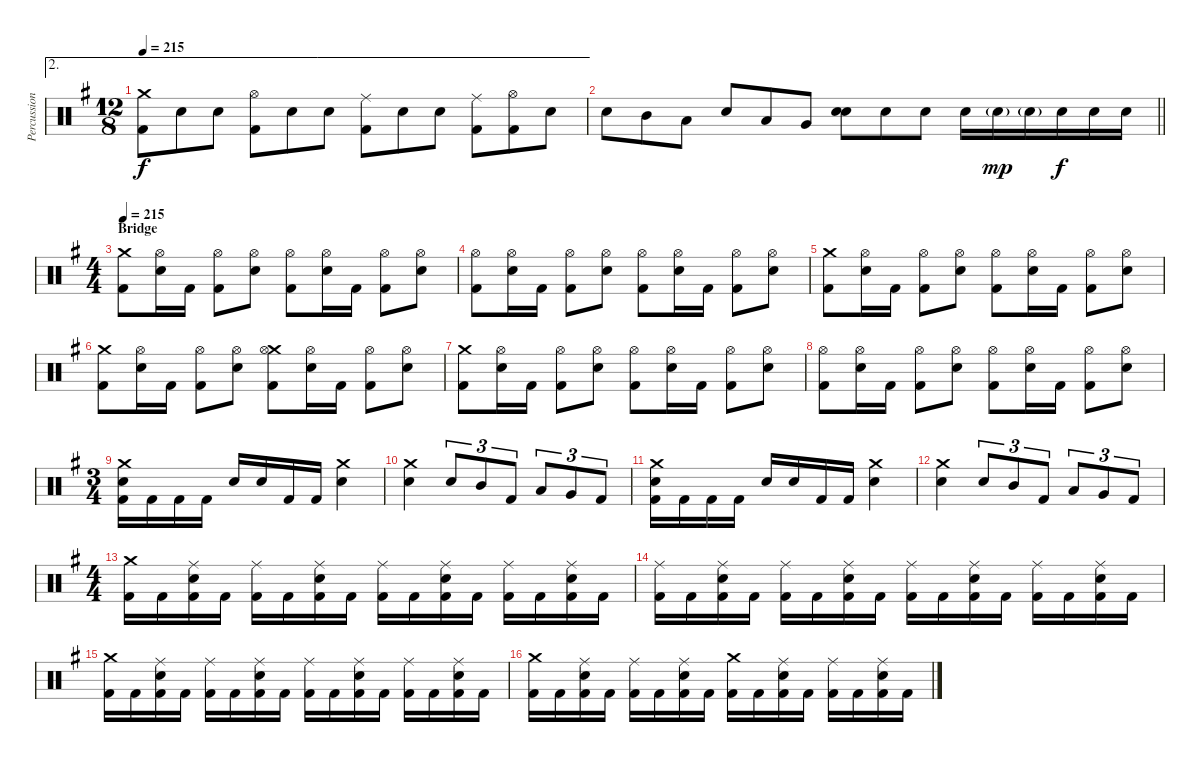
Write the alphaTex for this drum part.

\track ("Percussion" "Percussion") {instrument percussion}
\staff {score}
\articulation defaults
\ae 2
\ts (12 8)
\tempo 215
\clef neutral
\ks eminor
("Crash medium (hit)" "Kick (hit) 2").8{dy f} "Electric Snare (hit)".8 "Electric Snare (hit)".8 ("Hi-Hat (open)" "Kick (hit) 2").8 "Electric Snare (hit)".8 "Electric Snare (hit)".8 ("Ride (middle)" "Kick (hit) 2").8 "Electric Snare (hit)".8 "Electric Snare (hit)".8 ("Ride (middle)" "Kick (hit) 2").8 ("Hi-Hat (open)" "Kick (hit) 2").8 "Electric Snare (hit)".8 |
\barLineRight lightlight "Electric Snare (hit)".8 "Mid Tom (hit)".8 "Low Tom (hit)".8 "Electric Snare (hit)".8 "Low Tom (hit)".8 "Very Low Tom (hit)".8
("Electric Snare (hit)" "Electric Snare (hit)").8{bd 240} "Electric Snare (hit)".8 "Electric Snare (hit)".8 "Electric Snare (hit)".16 "Electric Snare (hit)"{g}.16{dy mp} "Electric Snare (hit)"{g}.16 "Electric Snare (hit)".16{dy f} "Electric Snare (hit)".16 "Electric Snare (hit)".16 |
\ts (4 4)
\section ("" "Bridge")
\tempo 215
("Crash medium (hit)" "Kick (hit) 2").8 ("Hi-Hat (open)" "Electric Snare (hit)").16 "Kick (hit) 2".16 ("Hi-Hat (open)" "Kick (hit) 2").8 ("Hi-Hat (open)" "Electric Snare (hit)").8 ("Hi-Hat (open)" "Kick (hit) 2").8 ("Hi-Hat (open)" "Electric Snare (hit)").16 "Kick (hit) 2".16 ("Hi-Hat (open)" "Kick (hit) 2").8 ("Hi-Hat (open)" "Electric Snare (hit)").8 |
("Hi-Hat (open)" "Kick (hit) 2").8 ("Hi-Hat (open)" "Electric Snare (hit)").16 "Kick (hit) 2".16 ("Hi-Hat (open)" "Kick (hit) 2").8 ("Hi-Hat (open)" "Electric Snare (hit)").8 ("Hi-Hat (open)" "Kick (hit) 2").8 ("Hi-Hat (open)" "Electric Snare (hit)").16 "Kick (hit) 2".16 ("Hi-Hat (open)" "Kick (hit) 2").8 ("Hi-Hat (open)" "Electric Snare (hit)").8 |
("Crash medium (hit)" "Kick (hit) 2").8 ("Hi-Hat (open)" "Electric Snare (hit)").16 "Kick (hit) 2".16 ("Hi-Hat (open)" "Kick (hit) 2").8 ("Hi-Hat (open)" "Electric Snare (hit)").8 ("Hi-Hat (open)" "Kick (hit) 2").8 ("Hi-Hat (open)" "Electric Snare (hit)").16 "Kick (hit) 2".16 ("Hi-Hat (open)" "Kick (hit) 2").8 ("Hi-Hat (open)" "Electric Snare (hit)").8 |
("Crash medium (hit)" "Kick (hit) 2").8 ("Hi-Hat (open)" "Electric Snare (hit)").16 "Kick (hit) 2".16 ("Hi-Hat (open)" "Kick (hit) 2").8 ("Hi-Hat (open)" "Electric Snare (hit)").8 ("Crash medium (hit)" "Hi-Hat (open)" "Kick (hit) 2").8 ("Hi-Hat (open)" "Electric Snare (hit)").16 "Kick (hit) 2".16 ("Hi-Hat (open)" "Kick (hit) 2").8 ("Hi-Hat (open)" "Electric Snare (hit)").8 |
("Crash medium (hit)" "Kick (hit) 2").8 ("Hi-Hat (open)" "Electric Snare (hit)").16 "Kick (hit) 2".16 ("Hi-Hat (open)" "Kick (hit) 2").8 ("Hi-Hat (open)" "Electric Snare (hit)").8 ("Hi-Hat (open)" "Kick (hit) 2").8 ("Hi-Hat (open)" "Electric Snare (hit)").16 "Kick (hit) 2".16 ("Hi-Hat (open)" "Kick (hit) 2").8 ("Hi-Hat (open)" "Electric Snare (hit)").8 |
("Hi-Hat (open)" "Kick (hit) 2").8 ("Hi-Hat (open)" "Electric Snare (hit)").16 "Kick (hit) 2".16 ("Hi-Hat (open)" "Kick (hit) 2").8 ("Hi-Hat (open)" "Electric Snare (hit)").8 ("Hi-Hat (open)" "Kick (hit) 2").8 ("Hi-Hat (open)" "Electric Snare (hit)").16 "Kick (hit) 2".16 ("Hi-Hat (open)" "Kick (hit) 2").8 ("Hi-Hat (open)" "Electric Snare (hit)").8 |
\ts (3 4)
("Crash medium (hit)" "Electric Snare (hit)" "Kick (hit) 2").16 "Kick (hit) 2".16 "Kick (hit) 2".16 "Kick (hit) 2".16 "Electric Snare (hit)".16 "Electric Snare (hit)".16 "Kick (hit) 2".16 "Kick (hit) 2".16 ("Crash medium (hit)" "Electric Snare (hit)").4 |
("Crash medium (hit)" "Electric Snare (hit)").4 "Electric Snare (hit)".8{tu (3 2)} "Mid Tom (hit)".8{tu (3 2)} "Kick (hit) 2".8{tu (3 2)} "Low Tom (hit)".8{tu (3 2)} "Very Low Tom (hit)".8{tu (3 2)} "Kick (hit) 2".8{tu (3 2)} |
("Crash medium (hit)" "Electric Snare (hit)" "Kick (hit) 2").16 "Kick (hit) 2".16 "Kick (hit) 2".16 "Kick (hit) 2".16 "Electric Snare (hit)".16 "Electric Snare (hit)".16 "Kick (hit) 2".16 "Kick (hit) 2".16 ("Crash medium (hit)" "Electric Snare (hit)").4 |
("Crash medium (hit)" "Electric Snare (hit)").4 "Electric Snare (hit)".8{tu (3 2)} "Mid Tom (hit)".8{tu (3 2)} "Kick (hit) 2".8{tu (3 2)} "Low Tom (hit)".8{tu (3 2)} "Very Low Tom (hit)".8{tu (3 2)} "Kick (hit) 2".8{tu (3 2)} |
\ts (4 4)
("Crash medium (hit)" "Kick (hit) 2").16 "Kick (hit) 2".16 ("Ride (middle)" "Electric Snare (hit)" "Kick (hit) 2").16 "Kick (hit) 2".16 ("Ride (middle)" "Kick (hit) 2").16 "Kick (hit) 2".16 ("Ride (middle)" "Electric Snare (hit)" "Kick (hit) 2").16 "Kick (hit) 2".16 ("Ride (middle)" "Kick (hit) 2").16 "Kick (hit) 2".16 ("Ride (middle)" "Electric Snare (hit)" "Kick (hit) 2").16 "Kick (hit) 2".16 ("Ride (middle)" "Kick (hit) 2").16 "Kick (hit) 2".16 ("Ride (middle)" "Electric Snare (hit)" "Kick (hit) 2").16 "Kick (hit) 2".16 |
("Ride (middle)" "Kick (hit) 2").16 "Kick (hit) 2".16 ("Ride (middle)" "Electric Snare (hit)" "Kick (hit) 2").16 "Kick (hit) 2".16 ("Ride (middle)" "Kick (hit) 2").16 "Kick (hit) 2".16 ("Ride (middle)" "Electric Snare (hit)" "Kick (hit) 2").16 "Kick (hit) 2".16 ("Ride (middle)" "Kick (hit) 2").16 "Kick (hit) 2".16 ("Ride (middle)" "Electric Snare (hit)" "Kick (hit) 2").16 "Kick (hit) 2".16 ("Ride (middle)" "Kick (hit) 2").16 "Kick (hit) 2".16 ("Ride (middle)" "Electric Snare (hit)" "Kick (hit) 2").16 "Kick (hit) 2".16 |
("Crash medium (hit)" "Kick (hit) 2").16 "Kick (hit) 2".16 ("Ride (middle)" "Electric Snare (hit)" "Kick (hit) 2").16 "Kick (hit) 2".16 ("Ride (middle)" "Kick (hit) 2").16 "Kick (hit) 2".16 ("Ride (middle)" "Electric Snare (hit)" "Kick (hit) 2").16 "Kick (hit) 2".16 ("Ride (middle)" "Kick (hit) 2").16 "Kick (hit) 2".16 ("Ride (middle)" "Electric Snare (hit)" "Kick (hit) 2").16 "Kick (hit) 2".16 ("Ride (middle)" "Kick (hit) 2").16 "Kick (hit) 2".16 ("Ride (middle)" "Electric Snare (hit)" "Kick (hit) 2").16 "Kick (hit) 2".16 |
("Crash medium (hit)" "Kick (hit) 2").16 "Kick (hit) 2".16 ("Ride (middle)" "Electric Snare (hit)" "Kick (hit) 2").16 "Kick (hit) 2".16 ("Ride (middle)" "Kick (hit) 2").16 "Kick (hit) 2".16 ("Ride (middle)" "Electric Snare (hit)" "Kick (hit) 2").16 "Kick (hit) 2".16 ("Crash medium (hit)" "Kick (hit) 2").16 "Kick (hit) 2".16 ("Ride (middle)" "Electric Snare (hit)" "Kick (hit) 2").16 "Kick (hit) 2".16 ("Ride (middle)" "Kick (hit) 2").16 "Kick (hit) 2".16 ("Ride (middle)" "Electric Snare (hit)" "Kick (hit) 2").16 "Kick (hit) 2".16
